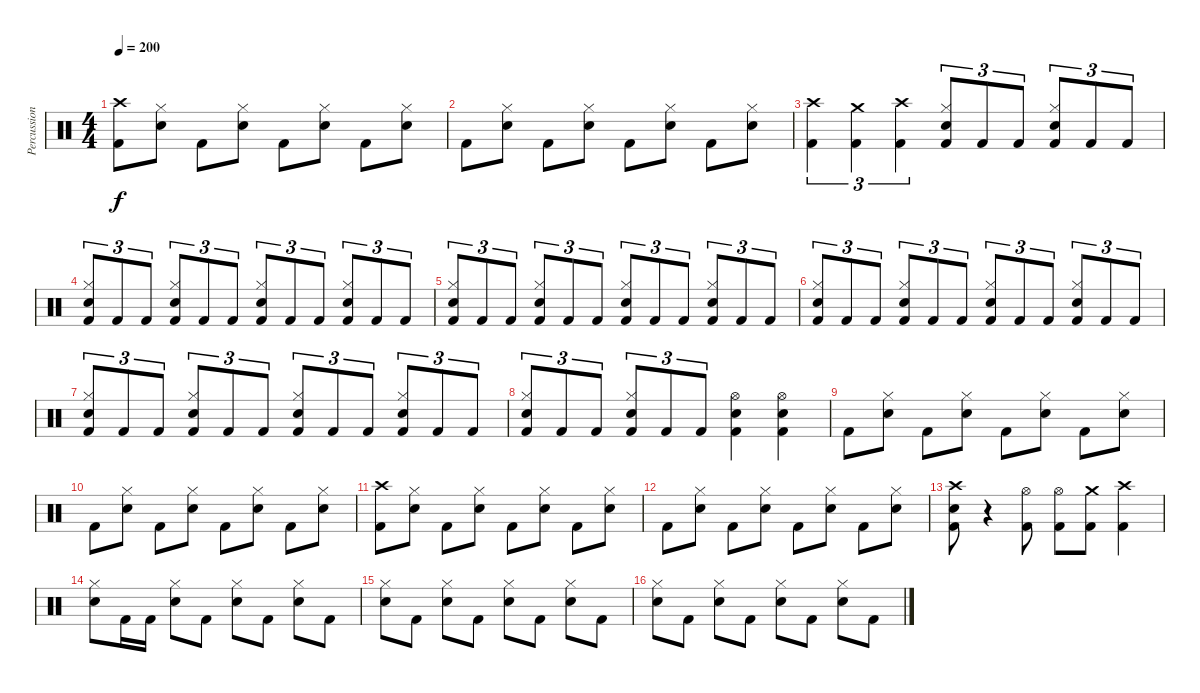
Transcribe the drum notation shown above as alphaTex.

\track ("Percussion" "Percussion") {instrument percussion}
\staff {score}
\articulation defaults
\ts (4 4)
\tempo 200
\clef neutral
\ks c
("Crash high (hit)" "Kick (hit) 2").8{dy f} ("Hi-Hat (closed)" "Snare (hit) 2").8 "Kick (hit) 2".8 ("Hi-Hat (closed)" "Snare (hit) 2").8 "Kick (hit) 2".8 ("Hi-Hat (closed)" "Snare (hit) 2").8 "Kick (hit) 2".8 ("Hi-Hat (closed)" "Snare (hit) 2").8 |
"Kick (hit) 2".8 ("Hi-Hat (closed)" "Snare (hit) 2").8 "Kick (hit) 2".8 ("Hi-Hat (closed)" "Snare (hit) 2").8 "Kick (hit) 2".8 ("Hi-Hat (closed)" "Snare (hit) 2").8 "Kick (hit) 2".8 ("Hi-Hat (closed)" "Snare (hit) 2").8 |
("Crash high (hit)" "Kick (hit) 2").4{tu (3 2)} ("Crash medium (hit)" "Kick (hit) 2").4{tu (3 2)} ("Crash high (hit)" "Kick (hit) 2").4{tu (3 2)} ("Hi-Hat (closed)" "Snare (hit) 2" "Kick (hit) 2").8{tu (3 2)} "Kick (hit) 2".8{tu (3 2)} "Kick (hit) 2".8{tu (3 2)} ("Hi-Hat (closed)" "Snare (hit) 2" "Kick (hit) 2").8{tu (3 2)} "Kick (hit) 2".8{tu (3 2)} "Kick (hit) 2".8{tu (3 2)} |
("Hi-Hat (closed)" "Snare (hit) 2" "Kick (hit) 2").8{tu (3 2)} "Kick (hit) 2".8{tu (3 2)} "Kick (hit) 2".8{tu (3 2)} ("Hi-Hat (closed)" "Snare (hit) 2" "Kick (hit) 2").8{tu (3 2)} "Kick (hit) 2".8{tu (3 2)} "Kick (hit) 2".8{tu (3 2)} ("Hi-Hat (closed)" "Snare (hit) 2" "Kick (hit) 2").8{tu (3 2)} "Kick (hit) 2".8{tu (3 2)} "Kick (hit) 2".8{tu (3 2)} ("Hi-Hat (closed)" "Snare (hit) 2" "Kick (hit) 2").8{tu (3 2)} "Kick (hit) 2".8{tu (3 2)} "Kick (hit) 2".8{tu (3 2)} |
("Hi-Hat (closed)" "Snare (hit) 2" "Kick (hit) 2").8{tu (3 2)} "Kick (hit) 2".8{tu (3 2)} "Kick (hit) 2".8{tu (3 2)} ("Hi-Hat (closed)" "Snare (hit) 2" "Kick (hit) 2").8{tu (3 2)} "Kick (hit) 2".8{tu (3 2)} "Kick (hit) 2".8{tu (3 2)} ("Hi-Hat (closed)" "Snare (hit) 2" "Kick (hit) 2").8{tu (3 2)} "Kick (hit) 2".8{tu (3 2)} "Kick (hit) 2".8{tu (3 2)} ("Hi-Hat (closed)" "Snare (hit) 2" "Kick (hit) 2").8{tu (3 2)} "Kick (hit) 2".8{tu (3 2)} "Kick (hit) 2".8{tu (3 2)} |
("Hi-Hat (closed)" "Snare (hit) 2" "Kick (hit) 2").8{tu (3 2)} "Kick (hit) 2".8{tu (3 2)} "Kick (hit) 2".8{tu (3 2)} ("Hi-Hat (closed)" "Snare (hit) 2" "Kick (hit) 2").8{tu (3 2)} "Kick (hit) 2".8{tu (3 2)} "Kick (hit) 2".8{tu (3 2)} ("Hi-Hat (closed)" "Snare (hit) 2" "Kick (hit) 2").8{tu (3 2)} "Kick (hit) 2".8{tu (3 2)} "Kick (hit) 2".8{tu (3 2)} ("Hi-Hat (closed)" "Snare (hit) 2" "Kick (hit) 2").8{tu (3 2)} "Kick (hit) 2".8{tu (3 2)} "Kick (hit) 2".8{tu (3 2)} |
("Hi-Hat (closed)" "Snare (hit) 2" "Kick (hit) 2").8{tu (3 2)} "Kick (hit) 2".8{tu (3 2)} "Kick (hit) 2".8{tu (3 2)} ("Hi-Hat (closed)" "Snare (hit) 2" "Kick (hit) 2").8{tu (3 2)} "Kick (hit) 2".8{tu (3 2)} "Kick (hit) 2".8{tu (3 2)} ("Hi-Hat (closed)" "Snare (hit) 2" "Kick (hit) 2").8{tu (3 2)} "Kick (hit) 2".8{tu (3 2)} "Kick (hit) 2".8{tu (3 2)} ("Hi-Hat (closed)" "Snare (hit) 2" "Kick (hit) 2").8{tu (3 2)} "Kick (hit) 2".8{tu (3 2)} "Kick (hit) 2".8{tu (3 2)} |
("Hi-Hat (closed)" "Snare (hit) 2" "Kick (hit) 2").8{tu (3 2)} "Kick (hit) 2".8{tu (3 2)} "Kick (hit) 2".8{tu (3 2)} ("Hi-Hat (closed)" "Snare (hit) 2" "Kick (hit) 2").8{tu (3 2)} "Kick (hit) 2".8{tu (3 2)} "Kick (hit) 2".8{tu (3 2)} ("Hi-Hat (open)" "Snare (hit) 2" "Kick (hit) 2").4 ("Hi-Hat (open)" "Snare (hit) 2" "Kick (hit) 2").4 |
"Kick (hit) 2".8 ("Hi-Hat (closed)" "Snare (hit) 2").8 "Kick (hit) 2".8 ("Hi-Hat (closed)" "Snare (hit) 2").8 "Kick (hit) 2".8 ("Hi-Hat (closed)" "Snare (hit) 2").8 "Kick (hit) 2".8 ("Hi-Hat (closed)" "Snare (hit) 2").8 |
"Kick (hit) 2".8 ("Hi-Hat (closed)" "Snare (hit) 2").8 "Kick (hit) 2".8 ("Hi-Hat (closed)" "Snare (hit) 2").8 "Kick (hit) 2".8 ("Hi-Hat (closed)" "Snare (hit) 2").8 "Kick (hit) 2".8 ("Hi-Hat (closed)" "Snare (hit) 2").8 |
("Crash high (hit)" "Kick (hit) 2").8 ("Hi-Hat (closed)" "Snare (hit) 2").8 "Kick (hit) 2".8 ("Hi-Hat (closed)" "Snare (hit) 2").8 "Kick (hit) 2".8 ("Hi-Hat (closed)" "Snare (hit) 2").8 "Kick (hit) 2".8 ("Hi-Hat (closed)" "Snare (hit) 2").8 |
"Kick (hit) 2".8 ("Hi-Hat (closed)" "Snare (hit) 2").8 "Kick (hit) 2".8 ("Hi-Hat (closed)" "Snare (hit) 2").8 "Kick (hit) 2".8 ("Hi-Hat (closed)" "Snare (hit) 2").8 "Kick (hit) 2".8 ("Hi-Hat (closed)" "Snare (hit) 2").8 |
("Crash high (hit)" "Snare (hit) 2" "Kick (hit) 2").8 r.4{volume 0} ("Hi-Hat (open)" "Kick (hit) 2").8{volume 13} ("Hi-Hat (open)" "Kick (hit) 2").8 ("Crash medium (hit)" "Kick (hit) 2").8 ("Crash high (hit)" "Kick (hit) 2").4 |
("Hi-Hat (closed)" "Snare (hit) 2").8 "Kick (hit) 2".16 "Kick (hit) 2".16 ("Hi-Hat (closed)" "Snare (hit) 2").8 "Kick (hit) 2".8 ("Hi-Hat (closed)" "Snare (hit) 2").8 "Kick (hit) 2".8 ("Hi-Hat (closed)" "Snare (hit) 2").8 "Kick (hit) 2".8 |
("Hi-Hat (closed)" "Snare (hit) 2").8 "Kick (hit) 2".8 ("Hi-Hat (closed)" "Snare (hit) 2").8 "Kick (hit) 2".8 ("Hi-Hat (closed)" "Snare (hit) 2").8 "Kick (hit) 2".8 ("Hi-Hat (closed)" "Snare (hit) 2").8 "Kick (hit) 2".8 |
("Hi-Hat (closed)" "Snare (hit) 2").8 "Kick (hit) 2".8 ("Hi-Hat (closed)" "Snare (hit) 2").8 "Kick (hit) 2".8 ("Hi-Hat (closed)" "Snare (hit) 2").8 "Kick (hit) 2".8 ("Hi-Hat (closed)" "Snare (hit) 2").8 "Kick (hit) 2".8
